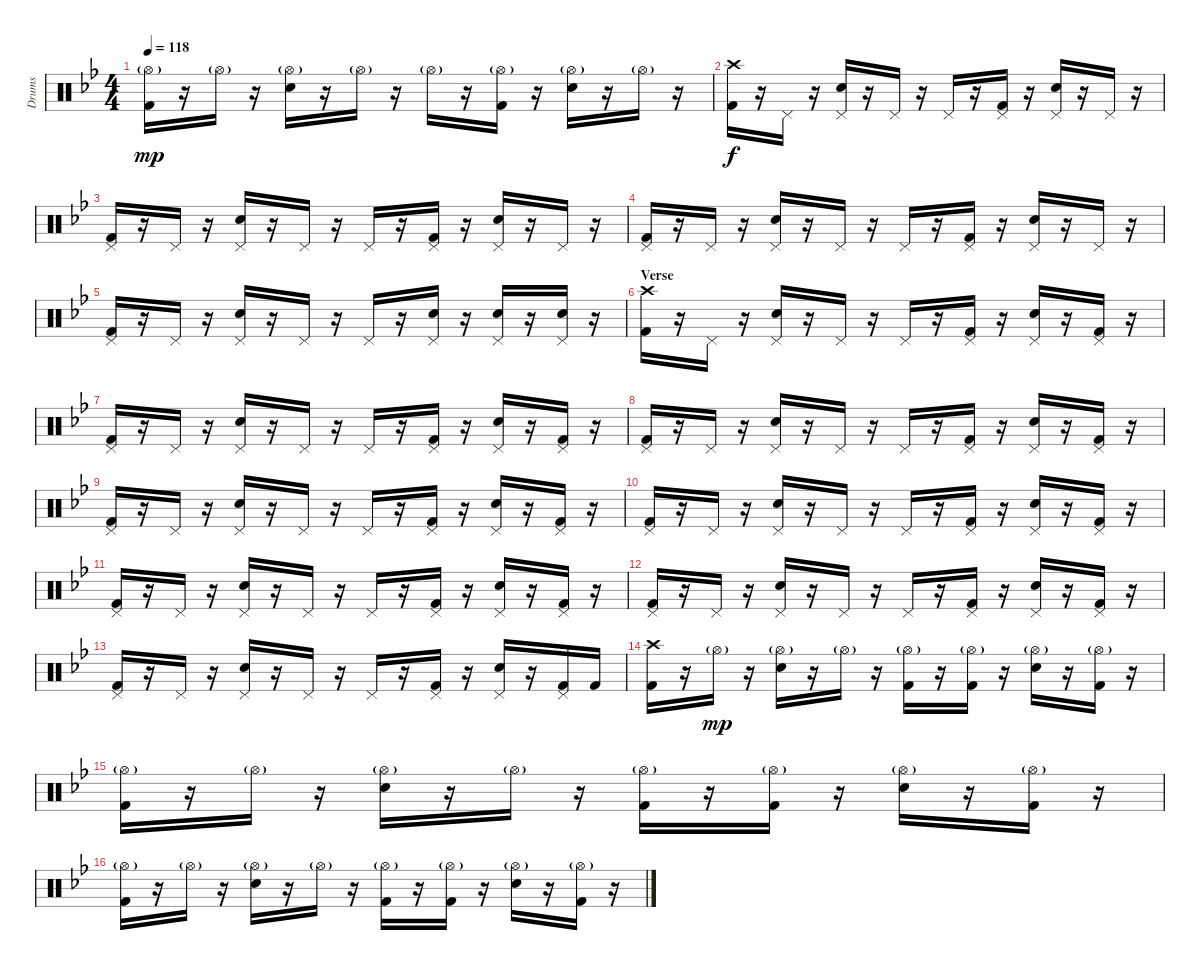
\track ("Drums" "Drums") {instrument percussion}
\staff {score}
\articulation defaults
\ts (4 4)
\tempo 118
\clef neutral
\ks bb
("Hi-Hat (open)"{g} "Kick (hit) 2").16{dy mp} r.16 "Hi-Hat (open)"{g}.16 r.16 ("Hi-Hat (open)"{g} "Electric Snare (hit)").16 r.16 "Hi-Hat (open)"{g}.16 r.16 "Hi-Hat (open)"{g}.16 r.16 ("Hi-Hat (open)"{g} "Kick (hit) 2").16 r.16 ("Hi-Hat (open)"{g} "Electric Snare (hit)").16 r.16 "Hi-Hat (open)"{g}.16 r.16 |
("Crash high (hit)" "Kick (hit) 2").16{dy f} r.16 "Pedal Hi-Hat (hit)".16 r.16 ("Pedal Hi-Hat (hit)" "Electric Snare (hit)").16 r.16 "Pedal Hi-Hat (hit)".16 r.16 "Pedal Hi-Hat (hit)".16 r.16 ("Pedal Hi-Hat (hit)" "Kick (hit) 2").16 r.16 ("Pedal Hi-Hat (hit)" "Electric Snare (hit)").16 r.16 "Pedal Hi-Hat (hit)".16 r.16 |
("Pedal Hi-Hat (hit)" "Kick (hit) 2").16 r.16 "Pedal Hi-Hat (hit)".16 r.16 ("Pedal Hi-Hat (hit)" "Electric Snare (hit)").16 r.16 "Pedal Hi-Hat (hit)".16 r.16 "Pedal Hi-Hat (hit)".16 r.16 ("Pedal Hi-Hat (hit)" "Kick (hit) 2").16 r.16 ("Pedal Hi-Hat (hit)" "Electric Snare (hit)").16 r.16 "Pedal Hi-Hat (hit)".16 r.16 |
("Pedal Hi-Hat (hit)" "Kick (hit) 2").16 r.16 "Pedal Hi-Hat (hit)".16 r.16 ("Pedal Hi-Hat (hit)" "Electric Snare (hit)").16 r.16 "Pedal Hi-Hat (hit)".16 r.16 "Pedal Hi-Hat (hit)".16 r.16 ("Pedal Hi-Hat (hit)" "Kick (hit) 2").16 r.16 ("Pedal Hi-Hat (hit)" "Electric Snare (hit)").16 r.16 "Pedal Hi-Hat (hit)".16 r.16 |
("Pedal Hi-Hat (hit)" "Kick (hit) 2").16 r.16 "Pedal Hi-Hat (hit)".16 r.16 ("Pedal Hi-Hat (hit)" "Electric Snare (hit)").16 r.16 "Pedal Hi-Hat (hit)".16 r.16 "Pedal Hi-Hat (hit)".16 r.16 ("Pedal Hi-Hat (hit)" "Electric Snare (hit)").16 r.16 ("Pedal Hi-Hat (hit)" "Electric Snare (hit)").16 r.16 ("Pedal Hi-Hat (hit)" "Electric Snare (hit)").16 r.16 |
\section ("" "Verse")
("Crash high (hit)" "Kick (hit) 2").16 r.16 "Pedal Hi-Hat (hit)".16 r.16 ("Pedal Hi-Hat (hit)" "Electric Snare (hit)").16 r.16 "Pedal Hi-Hat (hit)".16 r.16 "Pedal Hi-Hat (hit)".16 r.16 ("Pedal Hi-Hat (hit)" "Kick (hit) 2").16 r.16 ("Pedal Hi-Hat (hit)" "Electric Snare (hit)").16 r.16 ("Pedal Hi-Hat (hit)" "Kick (hit) 2").16 r.16 |
("Pedal Hi-Hat (hit)" "Kick (hit) 2").16 r.16 "Pedal Hi-Hat (hit)".16 r.16 ("Pedal Hi-Hat (hit)" "Electric Snare (hit)").16 r.16 "Pedal Hi-Hat (hit)".16 r.16 "Pedal Hi-Hat (hit)".16 r.16 ("Pedal Hi-Hat (hit)" "Kick (hit) 2").16 r.16 ("Pedal Hi-Hat (hit)" "Electric Snare (hit)").16 r.16 ("Pedal Hi-Hat (hit)" "Kick (hit) 2").16 r.16 |
("Pedal Hi-Hat (hit)" "Kick (hit) 2").16 r.16 "Pedal Hi-Hat (hit)".16 r.16 ("Pedal Hi-Hat (hit)" "Electric Snare (hit)").16 r.16 "Pedal Hi-Hat (hit)".16 r.16 "Pedal Hi-Hat (hit)".16 r.16 ("Pedal Hi-Hat (hit)" "Kick (hit) 2").16 r.16 ("Pedal Hi-Hat (hit)" "Electric Snare (hit)").16 r.16 ("Pedal Hi-Hat (hit)" "Kick (hit) 2").16 r.16 |
("Pedal Hi-Hat (hit)" "Kick (hit) 2").16 r.16 "Pedal Hi-Hat (hit)".16 r.16 ("Pedal Hi-Hat (hit)" "Electric Snare (hit)").16 r.16 "Pedal Hi-Hat (hit)".16 r.16 "Pedal Hi-Hat (hit)".16 r.16 ("Pedal Hi-Hat (hit)" "Kick (hit) 2").16 r.16 ("Pedal Hi-Hat (hit)" "Electric Snare (hit)").16 r.16 ("Pedal Hi-Hat (hit)" "Kick (hit) 2").16 r.16 |
("Pedal Hi-Hat (hit)" "Kick (hit) 2").16 r.16 "Pedal Hi-Hat (hit)".16 r.16 ("Pedal Hi-Hat (hit)" "Electric Snare (hit)").16 r.16 "Pedal Hi-Hat (hit)".16 r.16 "Pedal Hi-Hat (hit)".16 r.16 ("Pedal Hi-Hat (hit)" "Kick (hit) 2").16 r.16 ("Pedal Hi-Hat (hit)" "Electric Snare (hit)").16 r.16 ("Pedal Hi-Hat (hit)" "Kick (hit) 2").16 r.16 |
("Pedal Hi-Hat (hit)" "Kick (hit) 2").16 r.16 "Pedal Hi-Hat (hit)".16 r.16 ("Pedal Hi-Hat (hit)" "Electric Snare (hit)").16 r.16 "Pedal Hi-Hat (hit)".16 r.16 "Pedal Hi-Hat (hit)".16 r.16 ("Pedal Hi-Hat (hit)" "Kick (hit) 2").16 r.16 ("Pedal Hi-Hat (hit)" "Electric Snare (hit)").16 r.16 ("Pedal Hi-Hat (hit)" "Kick (hit) 2").16 r.16 |
("Pedal Hi-Hat (hit)" "Kick (hit) 2").16 r.16 "Pedal Hi-Hat (hit)".16 r.16 ("Pedal Hi-Hat (hit)" "Electric Snare (hit)").16 r.16 "Pedal Hi-Hat (hit)".16 r.16 "Pedal Hi-Hat (hit)".16 r.16 ("Pedal Hi-Hat (hit)" "Kick (hit) 2").16 r.16 ("Pedal Hi-Hat (hit)" "Electric Snare (hit)").16 r.16 ("Pedal Hi-Hat (hit)" "Kick (hit) 2").16 r.16 |
("Pedal Hi-Hat (hit)" "Kick (hit) 2").16 r.16 "Pedal Hi-Hat (hit)".16 r.16 ("Pedal Hi-Hat (hit)" "Electric Snare (hit)").16 r.16 "Pedal Hi-Hat (hit)".16 r.16 "Pedal Hi-Hat (hit)".16 r.16 ("Pedal Hi-Hat (hit)" "Kick (hit) 2").16 r.16 ("Pedal Hi-Hat (hit)" "Electric Snare (hit)").16 r.16 ("Pedal Hi-Hat (hit)" "Kick (hit) 2").16 "Kick (hit) 2".16 |
("Crash high (hit)" "Kick (hit) 2").16 r.16 "Hi-Hat (open)"{g}.16{dy mp} r.16 ("Hi-Hat (open)"{g} "Electric Snare (hit)").16 r.16 "Hi-Hat (open)"{g}.16 r.16 ("Hi-Hat (open)"{g} "Kick (hit) 2").16 r.16 ("Hi-Hat (open)"{g} "Kick (hit) 2").16 r.16 ("Hi-Hat (open)"{g} "Electric Snare (hit)").16 r.16 ("Hi-Hat (open)"{g} "Kick (hit) 2").16 r.16 |
("Hi-Hat (open)"{g} "Kick (hit) 2").16 r.16 "Hi-Hat (open)"{g}.16 r.16 ("Hi-Hat (open)"{g} "Electric Snare (hit)").16 r.16 "Hi-Hat (open)"{g}.16 r.16 ("Hi-Hat (open)"{g} "Kick (hit) 2").16 r.16 ("Hi-Hat (open)"{g} "Kick (hit) 2").16 r.16 ("Hi-Hat (open)"{g} "Electric Snare (hit)").16 r.16 ("Hi-Hat (open)"{g} "Kick (hit) 2").16 r.16 |
("Hi-Hat (open)"{g} "Kick (hit) 2").16 r.16 "Hi-Hat (open)"{g}.16 r.16 ("Hi-Hat (open)"{g} "Electric Snare (hit)").16 r.16 "Hi-Hat (open)"{g}.16 r.16 ("Hi-Hat (open)"{g} "Kick (hit) 2").16 r.16 ("Hi-Hat (open)"{g} "Kick (hit) 2").16 r.16 ("Hi-Hat (open)"{g} "Electric Snare (hit)").16 r.16 ("Hi-Hat (open)"{g} "Kick (hit) 2").16 r.16
